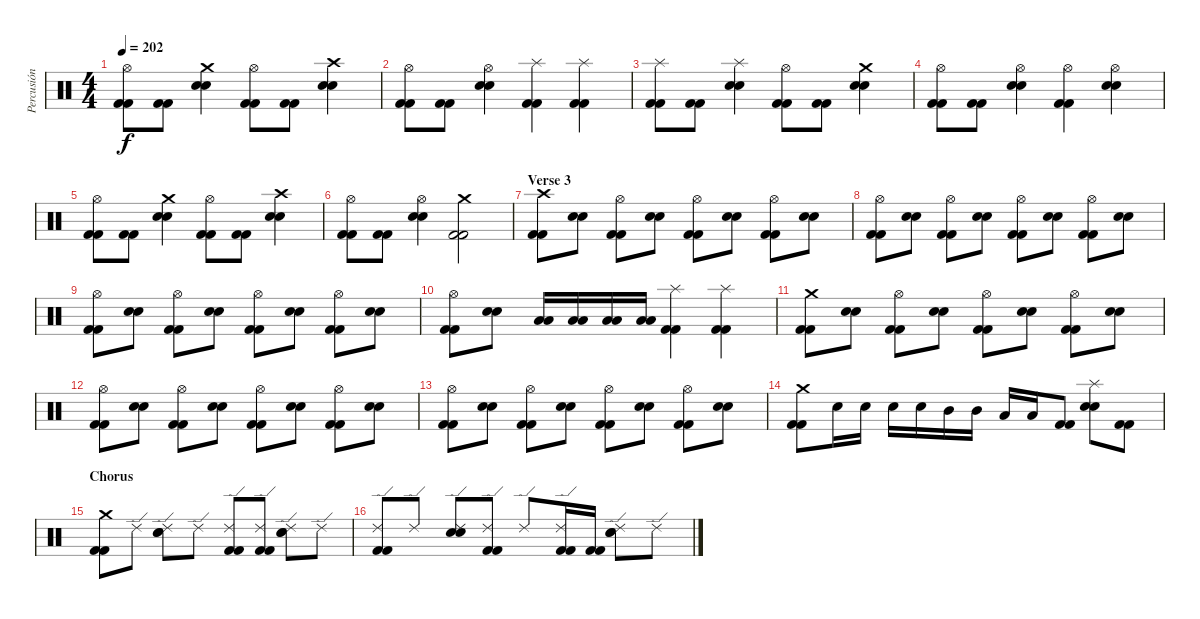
\track ("Percusión" "Percusión") {instrument percussion}
\staff {score}
\articulation defaults
\ts (4 4)
\tempo 202
\clef neutral
\ks c
("Hi-Hat (open)" "Kick (hit) 2" "Kick (hit) 2").8{dy f} ("Kick (hit) 2" "Kick (hit) 2").8 ("Crash medium (hit)" "Snare (hit) 2" "Snare (hit) 2").4 ("Hi-Hat (open)" "Kick (hit) 2" "Kick (hit) 2").8 ("Kick (hit) 2" "Kick (hit) 2").8 ("Crash high (hit)" "Snare (hit) 2" "Snare (hit) 2").4 |
("Hi-Hat (open)" "Kick (hit) 2" "Kick (hit) 2").8 ("Kick (hit) 2" "Kick (hit) 2").8 ("Hi-Hat (open)" "Snare (hit) 2" "Snare (hit) 2").4 ("Splash (hit)" "Kick (hit) 2" "Kick (hit) 2").4 ("Splash (hit)" "Kick (hit) 2" "Kick (hit) 2").4 |
("Splash (hit)" "Kick (hit) 2" "Kick (hit) 2").8 ("Kick (hit) 2" "Kick (hit) 2").8 ("Splash (hit)" "Snare (hit) 2" "Snare (hit) 2").4 ("Hi-Hat (open)" "Kick (hit) 2" "Kick (hit) 2").8 ("Kick (hit) 2" "Kick (hit) 2").8 ("Crash medium (hit)" "Snare (hit) 2" "Snare (hit) 2").4 |
("Hi-Hat (open)" "Kick (hit) 2" "Kick (hit) 2").8 ("Kick (hit) 2" "Kick (hit) 2").8 ("Hi-Hat (open)" "Snare (hit) 2" "Snare (hit) 2").4 ("Hi-Hat (open)" "Kick (hit) 2" "Kick (hit) 2").4 ("Hi-Hat (open)" "Snare (hit) 2" "Snare (hit) 2").4 |
("Hi-Hat (open)" "Kick (hit) 2" "Kick (hit) 2").8 ("Kick (hit) 2" "Kick (hit) 2").8 ("Crash medium (hit)" "Snare (hit) 2" "Snare (hit) 2").4 ("Hi-Hat (open)" "Kick (hit) 2" "Kick (hit) 2").8 ("Kick (hit) 2" "Kick (hit) 2").8 ("Crash high (hit)" "Snare (hit) 2" "Snare (hit) 2").4 |
("Hi-Hat (open)" "Kick (hit) 2" "Kick (hit) 2").8 ("Kick (hit) 2" "Kick (hit) 2").8 ("Hi-Hat (open)" "Snare (hit) 2" "Snare (hit) 2").4 ("Crash medium (hit)" "Kick (hit) 2" "Kick (hit) 2").2 |
\section ("" "Verse 3")
("Crash high (hit)" "Kick (hit) 2" "Kick (hit) 2").8 ("Snare (hit) 2" "Snare (hit) 2").8 ("Hi-Hat (open)" "Kick (hit) 2" "Kick (hit) 2").8 ("Snare (hit) 2" "Snare (hit) 2").8 ("Hi-Hat (open)" "Kick (hit) 2" "Kick (hit) 2").8 ("Snare (hit) 2" "Snare (hit) 2").8 ("Hi-Hat (open)" "Kick (hit) 2" "Kick (hit) 2").8 ("Snare (hit) 2" "Snare (hit) 2").8 |
("Hi-Hat (open)" "Kick (hit) 2" "Kick (hit) 2").8 ("Snare (hit) 2" "Snare (hit) 2").8 ("Hi-Hat (open)" "Kick (hit) 2" "Kick (hit) 2").8 ("Snare (hit) 2" "Snare (hit) 2").8 ("Hi-Hat (open)" "Kick (hit) 2" "Kick (hit) 2").8 ("Snare (hit) 2" "Snare (hit) 2").8 ("Hi-Hat (open)" "Kick (hit) 2" "Kick (hit) 2").8 ("Snare (hit) 2" "Snare (hit) 2").8 |
("Hi-Hat (open)" "Kick (hit) 2" "Kick (hit) 2").8 ("Snare (hit) 2" "Snare (hit) 2").8 ("Hi-Hat (open)" "Kick (hit) 2" "Kick (hit) 2").8 ("Snare (hit) 2" "Snare (hit) 2").8 ("Hi-Hat (open)" "Kick (hit) 2" "Kick (hit) 2").8 ("Snare (hit) 2" "Snare (hit) 2").8 ("Hi-Hat (open)" "Kick (hit) 2" "Kick (hit) 2").8 ("Snare (hit) 2" "Snare (hit) 2").8 |
("Hi-Hat (open)" "Kick (hit) 2" "Kick (hit) 2").8 ("Snare (hit) 2" "Snare (hit) 2").8 ("Low Tom (hit)" "Low Tom (hit)").16 ("Low Tom (hit)" "Low Tom (hit)").16 ("Low Tom (hit)" "Low Tom (hit)").16 ("Low Tom (hit)" "Low Tom (hit)").16 ("Splash (hit)" "Kick (hit) 2" "Kick (hit) 2").4 ("Splash (hit)" "Kick (hit) 2" "Kick (hit) 2").4 |
("Crash medium (hit)" "Kick (hit) 2" "Kick (hit) 2").8 ("Snare (hit) 2" "Snare (hit) 2").8 ("Hi-Hat (open)" "Kick (hit) 2" "Kick (hit) 2").8 ("Snare (hit) 2" "Snare (hit) 2").8 ("Hi-Hat (open)" "Kick (hit) 2" "Kick (hit) 2").8 ("Snare (hit) 2" "Snare (hit) 2").8 ("Hi-Hat (open)" "Kick (hit) 2" "Kick (hit) 2").8 ("Snare (hit) 2" "Snare (hit) 2").8 |
("Hi-Hat (open)" "Kick (hit) 2" "Kick (hit) 2").8 ("Snare (hit) 2" "Snare (hit) 2").8 ("Hi-Hat (open)" "Kick (hit) 2" "Kick (hit) 2").8 ("Snare (hit) 2" "Snare (hit) 2").8 ("Hi-Hat (open)" "Kick (hit) 2" "Kick (hit) 2").8 ("Snare (hit) 2" "Snare (hit) 2").8 ("Hi-Hat (open)" "Kick (hit) 2" "Kick (hit) 2").8 ("Snare (hit) 2" "Snare (hit) 2").8 |
("Hi-Hat (open)" "Kick (hit) 2" "Kick (hit) 2").8 ("Snare (hit) 2" "Snare (hit) 2").8 ("Hi-Hat (open)" "Kick (hit) 2" "Kick (hit) 2").8 ("Snare (hit) 2" "Snare (hit) 2").8 ("Hi-Hat (open)" "Kick (hit) 2" "Kick (hit) 2").8 ("Snare (hit) 2" "Snare (hit) 2").8 ("Hi-Hat (open)" "Kick (hit) 2" "Kick (hit) 2").8 ("Snare (hit) 2" "Snare (hit) 2").8 |
("Crash medium (hit)" "Kick (hit) 2" "Kick (hit) 2").8 "Snare (hit) 2".16 "Snare (hit) 2".16 "Snare (hit) 2".16 "Snare (hit) 2".16 "Mid Tom (hit)".16 "Mid Tom (hit)".16 "Low Tom (hit)".16 "Low Tom (hit)".16 ("Kick (hit) 2" "Kick (hit) 2").8 ("Splash (hit)" "Snare (hit) 2" "Snare (hit) 2").8 ("Kick (hit) 2" "Kick (hit) 2").8 |
\section ("" "Chorus")
("Crash medium (hit)" "Kick (hit) 2" "Kick (hit) 2").8 "Ride (edge) 2".8 ("Ride (edge) 2" "Snare (hit) 2" "Snare (hit) 2").8 "Ride (edge) 2".8 ("Ride (edge) 2" "Kick (hit) 2" "Kick (hit) 2").8 ("Ride (edge) 2" "Kick (hit) 2" "Kick (hit) 2").8 ("Ride (edge) 2" "Snare (hit) 2" "Snare (hit) 2").8 "Ride (edge) 2".8 |
("Ride (edge) 2" "Kick (hit) 2" "Kick (hit) 2").8 "Ride (edge) 2".8 ("Ride (edge) 2" "Snare (hit) 2" "Snare (hit) 2").8 ("Ride (edge) 2" "Kick (hit) 2" "Kick (hit) 2").8 "Ride (edge) 2".8 ("Ride (edge) 2" "Kick (hit) 2" "Kick (hit) 2").16 ("Kick (hit) 2" "Kick (hit) 2").16 ("Ride (edge) 2" "Snare (hit) 2" "Snare (hit) 2").8 "Ride (edge) 2".8
